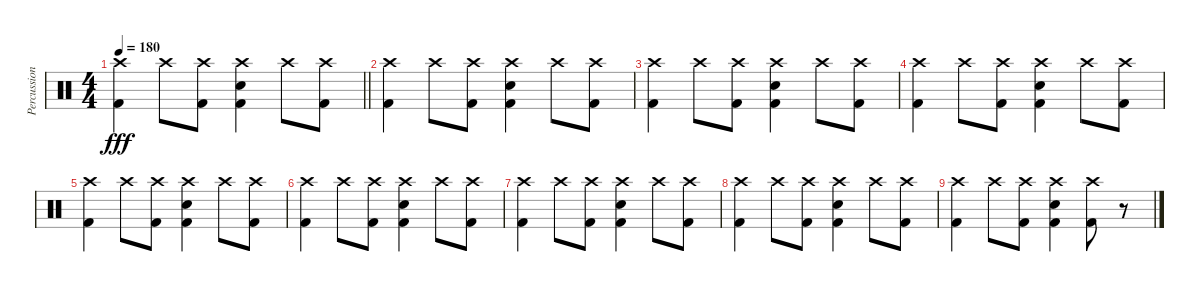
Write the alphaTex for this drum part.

\track ("Percussion" "Percussion") {instrument percussion}
\staff {score}
\articulation defaults
\ts (4 4)
\tempo 180
\clef neutral
\barLineRight lightlight
\ks c
("Crash high (hit)" "Kick (hit) 2").4{dy fff} "Crash high (hit)".8 ("Crash high (hit)" "Kick (hit) 2").8 ("Crash high (hit)" "Electric Snare (hit)" "Kick (hit) 2").4 "Crash high (hit)".8 ("Crash high (hit)" "Kick (hit) 2").8 |
("Crash high (hit)" "Kick (hit) 2").4 "Crash high (hit)".8 ("Crash high (hit)" "Kick (hit) 2").8 ("Crash high (hit)" "Electric Snare (hit)" "Kick (hit) 2").4 "Crash high (hit)".8 ("Crash high (hit)" "Kick (hit) 2").8 |
("Crash high (hit)" "Kick (hit) 2").4 "Crash high (hit)".8 ("Crash high (hit)" "Kick (hit) 2").8 ("Crash high (hit)" "Electric Snare (hit)" "Kick (hit) 2").4 "Crash high (hit)".8 ("Crash high (hit)" "Kick (hit) 2").8 |
("Crash high (hit)" "Kick (hit) 2").4 "Crash high (hit)".8 ("Crash high (hit)" "Kick (hit) 2").8 ("Crash high (hit)" "Electric Snare (hit)" "Kick (hit) 2").4 "Crash high (hit)".8 ("Crash high (hit)" "Kick (hit) 2").8 |
("Crash high (hit)" "Kick (hit) 2").4 "Crash high (hit)".8 ("Crash high (hit)" "Kick (hit) 2").8 ("Crash high (hit)" "Electric Snare (hit)" "Kick (hit) 2").4 "Crash high (hit)".8 ("Crash high (hit)" "Kick (hit) 2").8 |
("Crash high (hit)" "Kick (hit) 2").4 "Crash high (hit)".8 ("Crash high (hit)" "Kick (hit) 2").8 ("Crash high (hit)" "Electric Snare (hit)" "Kick (hit) 2").4 "Crash high (hit)".8 ("Crash high (hit)" "Kick (hit) 2").8 |
("Crash high (hit)" "Kick (hit) 2").4 "Crash high (hit)".8 ("Crash high (hit)" "Kick (hit) 2").8 ("Crash high (hit)" "Electric Snare (hit)" "Kick (hit) 2").4 "Crash high (hit)".8 ("Crash high (hit)" "Kick (hit) 2").8 |
("Crash high (hit)" "Kick (hit) 2").4 "Crash high (hit)".8 ("Crash high (hit)" "Kick (hit) 2").8 ("Crash high (hit)" "Electric Snare (hit)" "Kick (hit) 2").4 "Crash high (hit)".8 ("Crash high (hit)" "Kick (hit) 2").8 |
("Crash high (hit)" "Kick (hit) 2").4 "Crash high (hit)".8 ("Crash high (hit)" "Kick (hit) 2").8 ("Crash high (hit)" "Electric Snare (hit)" "Kick (hit) 2").4 ("Crash high (hit)" "Kick (hit) 2").8 r.8
